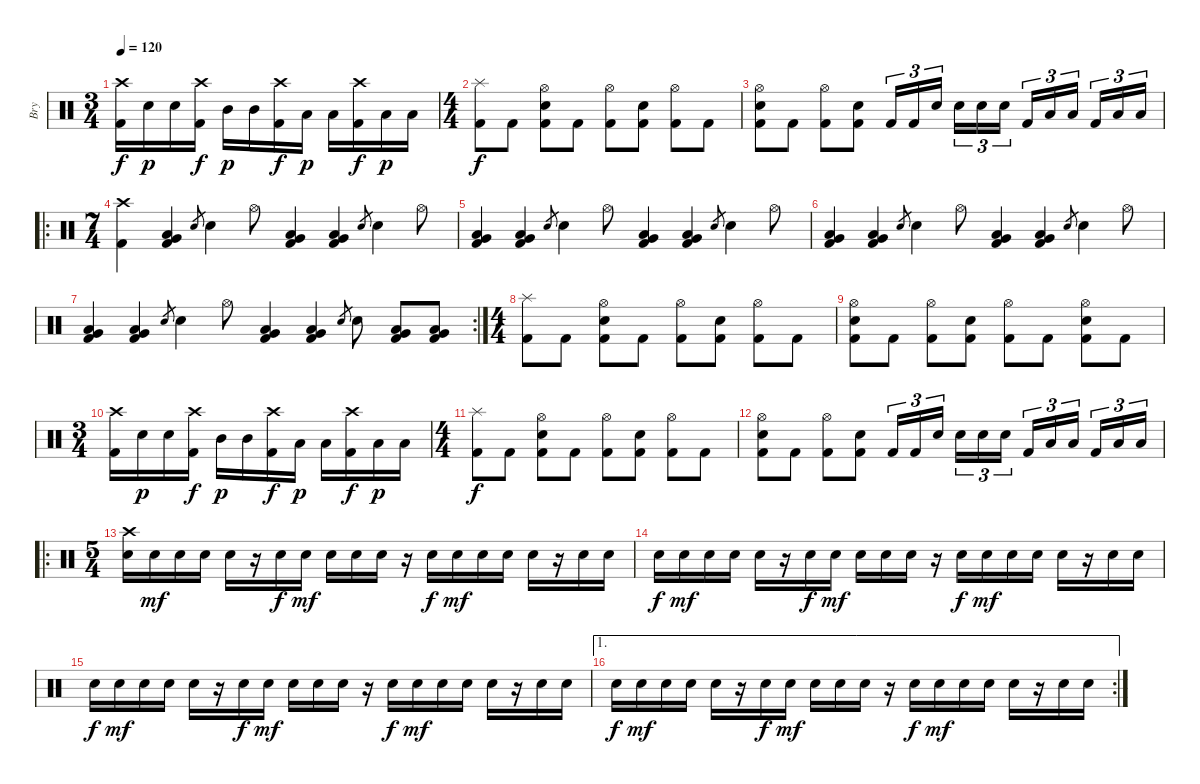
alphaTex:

\track ("Bry" "Bry") {instrument percussion}
\staff {score}
\articulation defaults
\ts (3 4)
\tempo 120
\clef neutral
\ks c
("Crash high (hit)" "Kick (hit) 2").16{dy f} "Snare (hit) 2".16{dy p} "Snare (hit) 2".16 ("Crash high (hit)" "Kick (hit) 2").16{dy f} "Mid Tom (hit)".16{dy p} "Mid Tom (hit)".16 ("Crash high (hit)" "Kick (hit) 2").16{dy f} "Low Tom (hit)".16{dy p} "Low Tom (hit)".16 ("Crash high (hit)" "Kick (hit) 2").16{dy f} "Low Tom (hit)".16{dy p} "Low Tom (hit)".16 |
\ts (4 4)
("Splash (hit)" "Kick (hit) 2").8{dy f} "Kick (hit) 2".8 ("Hi-Hat (open)" "Snare (hit) 2" "Kick (hit) 2").8 "Kick (hit) 2".8 ("Hi-Hat (open)" "Kick (hit) 2").8 ("Snare (hit) 2" "Kick (hit) 2").8 ("Hi-Hat (open)" "Kick (hit) 2").8 "Kick (hit) 2".8 |
("Hi-Hat (open)" "Snare (hit) 2" "Kick (hit) 2").8 "Kick (hit) 2".8 ("Hi-Hat (open)" "Kick (hit) 2").8 ("Snare (hit) 2" "Kick (hit) 2").8 "Kick (hit) 2".16{tu (3 2)} "Kick (hit) 2".16{tu (3 2)} "Snare (hit) 2".16{tu (3 2)} "Snare (hit) 2".16{tu (3 2)} "Snare (hit) 2".16{tu (3 2)} "Snare (hit) 2".16{tu (3 2)} "Kick (hit) 2".16{tu (3 2)} "Low Tom (hit)".16{tu (3 2)} "Low Tom (hit)".16{tu (3 2)} "Kick (hit) 2".16{tu (3 2)} "Low Tom (hit)".16{tu (3 2)} "Low Tom (hit)".16{tu (3 2)} |
\ro
\ts (7 4)
("Crash high (hit)" "Kick (hit) 2").4 ("Low Floor Tom (hit)" "Very Low Tom (hit)" "Kick (hit) 2").4 "Snare (hit) 2".8{gr} "Snare (hit) 2".4 "Hi-Hat (open)".8 ("Low Floor Tom (hit)" "Very Low Tom (hit)" "Kick (hit) 2").4 ("Low Floor Tom (hit)" "Very Low Tom (hit)" "Kick (hit) 2").4 "Snare (hit) 2".8{gr} "Snare (hit) 2".4 "Hi-Hat (open)".8 |
("Low Floor Tom (hit)" "Very Low Tom (hit)" "Kick (hit) 2").4 ("Low Floor Tom (hit)" "Very Low Tom (hit)" "Kick (hit) 2").4 "Snare (hit) 2".8{gr} "Snare (hit) 2".4 "Hi-Hat (open)".8 ("Low Floor Tom (hit)" "Very Low Tom (hit)" "Kick (hit) 2").4 ("Low Floor Tom (hit)" "Very Low Tom (hit)" "Kick (hit) 2").4 "Snare (hit) 2".8{gr} "Snare (hit) 2".4 "Hi-Hat (open)".8 |
("Low Floor Tom (hit)" "Very Low Tom (hit)" "Kick (hit) 2").4 ("Low Floor Tom (hit)" "Very Low Tom (hit)" "Kick (hit) 2").4 "Snare (hit) 2".8{gr} "Snare (hit) 2".4 "Hi-Hat (open)".8 ("Low Floor Tom (hit)" "Very Low Tom (hit)" "Kick (hit) 2").4 ("Low Floor Tom (hit)" "Very Low Tom (hit)" "Kick (hit) 2").4 "Snare (hit) 2".8{gr} "Snare (hit) 2".4 "Hi-Hat (open)".8 |
\rc 2
("Low Floor Tom (hit)" "Very Low Tom (hit)" "Kick (hit) 2").4 ("Low Floor Tom (hit)" "Very Low Tom (hit)" "Kick (hit) 2").4 "Snare (hit) 2".8{gr} "Snare (hit) 2".4 "Hi-Hat (open)".8 ("Low Floor Tom (hit)" "Very Low Tom (hit)" "Kick (hit) 2").4 ("Low Floor Tom (hit)" "Very Low Tom (hit)" "Kick (hit) 2").4 "Snare (hit) 2".8{gr} "Snare (hit) 2".8 ("Very Low Tom (hit)" "Low Floor Tom (hit)" "Kick (hit) 2").8 ("Very Low Tom (hit)" "Low Floor Tom (hit)" "Kick (hit) 2").8 |
\ts (4 4)
("Splash (hit)" "Kick (hit) 2").8 "Kick (hit) 2".8 ("Hi-Hat (open)" "Snare (hit) 2" "Kick (hit) 2").8 "Kick (hit) 2".8 ("Hi-Hat (open)" "Kick (hit) 2").8 ("Snare (hit) 2" "Kick (hit) 2").8 ("Hi-Hat (open)" "Kick (hit) 2").8 "Kick (hit) 2".8 |
("Hi-Hat (open)" "Snare (hit) 2" "Kick (hit) 2").8 "Kick (hit) 2".8 ("Hi-Hat (open)" "Kick (hit) 2").8 ("Snare (hit) 2" "Kick (hit) 2").8 ("Hi-Hat (open)" "Kick (hit) 2").8 "Kick (hit) 2".8 ("Hi-Hat (open)" "Snare (hit) 2" "Kick (hit) 2").8 "Kick (hit) 2".8 |
\ts (3 4)
("Crash high (hit)" "Kick (hit) 2").16 "Snare (hit) 2".16{dy p} "Snare (hit) 2".16 ("Crash high (hit)" "Kick (hit) 2").16{dy f} "Mid Tom (hit)".16{dy p} "Mid Tom (hit)".16 ("Crash high (hit)" "Kick (hit) 2").16{dy f} "Low Tom (hit)".16{dy p} "Low Tom (hit)".16 ("Crash high (hit)" "Kick (hit) 2").16{dy f} "Low Tom (hit)".16{dy p} "Low Tom (hit)".16 |
\ts (4 4)
("Splash (hit)" "Kick (hit) 2").8{dy f} "Kick (hit) 2".8 ("Hi-Hat (open)" "Snare (hit) 2" "Kick (hit) 2").8 "Kick (hit) 2".8 ("Hi-Hat (open)" "Kick (hit) 2").8 ("Snare (hit) 2" "Kick (hit) 2").8 ("Hi-Hat (open)" "Kick (hit) 2").8 "Kick (hit) 2".8 |
("Hi-Hat (open)" "Snare (hit) 2" "Kick (hit) 2").8 "Kick (hit) 2".8 ("Hi-Hat (open)" "Kick (hit) 2").8 ("Snare (hit) 2" "Kick (hit) 2").8 "Kick (hit) 2".16{tu (3 2)} "Kick (hit) 2".16{tu (3 2)} "Snare (hit) 2".16{tu (3 2)} "Snare (hit) 2".16{tu (3 2)} "Snare (hit) 2".16{tu (3 2)} "Snare (hit) 2".16{tu (3 2)} "Kick (hit) 2".16{tu (3 2)} "Low Tom (hit)".16{tu (3 2)} "Low Tom (hit)".16{tu (3 2)} "Kick (hit) 2".16{tu (3 2)} "Low Tom (hit)".16{tu (3 2)} "Low Tom (hit)".16{tu (3 2)} |
\ro
\ts (5 4)
("Crash high (hit)" "Snare (hit) 2").16 "Snare (hit) 2".16{dy mf} "Snare (hit) 2".16 "Snare (hit) 2".16 "Snare (hit) 2".16 r.16 "Snare (hit) 2".16{dy f} "Snare (hit) 2".16{dy mf} "Snare (hit) 2".16 "Snare (hit) 2".16 "Snare (hit) 2".16 r.16 "Snare (hit) 2".16{dy f} "Snare (hit) 2".16{dy mf} "Snare (hit) 2".16 "Snare (hit) 2".16 "Snare (hit) 2".16 r.16 "Snare (hit) 2".16 "Snare (hit) 2".16 |
"Snare (hit) 2".16{dy f} "Snare (hit) 2".16{dy mf} "Snare (hit) 2".16 "Snare (hit) 2".16 "Snare (hit) 2".16 r.16 "Snare (hit) 2".16{dy f} "Snare (hit) 2".16{dy mf} "Snare (hit) 2".16 "Snare (hit) 2".16 "Snare (hit) 2".16 r.16 "Snare (hit) 2".16{dy f} "Snare (hit) 2".16{dy mf} "Snare (hit) 2".16 "Snare (hit) 2".16 "Snare (hit) 2".16 r.16 "Snare (hit) 2".16 "Snare (hit) 2".16 |
"Snare (hit) 2".16{dy f} "Snare (hit) 2".16{dy mf} "Snare (hit) 2".16 "Snare (hit) 2".16 "Snare (hit) 2".16 r.16 "Snare (hit) 2".16{dy f} "Snare (hit) 2".16{dy mf} "Snare (hit) 2".16 "Snare (hit) 2".16 "Snare (hit) 2".16 r.16 "Snare (hit) 2".16{dy f} "Snare (hit) 2".16{dy mf} "Snare (hit) 2".16 "Snare (hit) 2".16 "Snare (hit) 2".16 r.16 "Snare (hit) 2".16 "Snare (hit) 2".16 |
\ae 1
\rc 2 "Snare (hit) 2".16{dy f} "Snare (hit) 2".16{dy mf} "Snare (hit) 2".16 "Snare (hit) 2".16 "Snare (hit) 2".16
r.16 "Snare (hit) 2".16{dy f} "Snare (hit) 2".16{dy mf} "Snare (hit) 2".16 "Snare (hit) 2".16 "Snare (hit) 2".16 r.16 "Snare (hit) 2".16{dy f} "Snare (hit) 2".16{dy mf} "Snare (hit) 2".16 "Snare (hit) 2".16 "Snare (hit) 2".16 r.16 "Snare (hit) 2".16 "Snare (hit) 2".16
